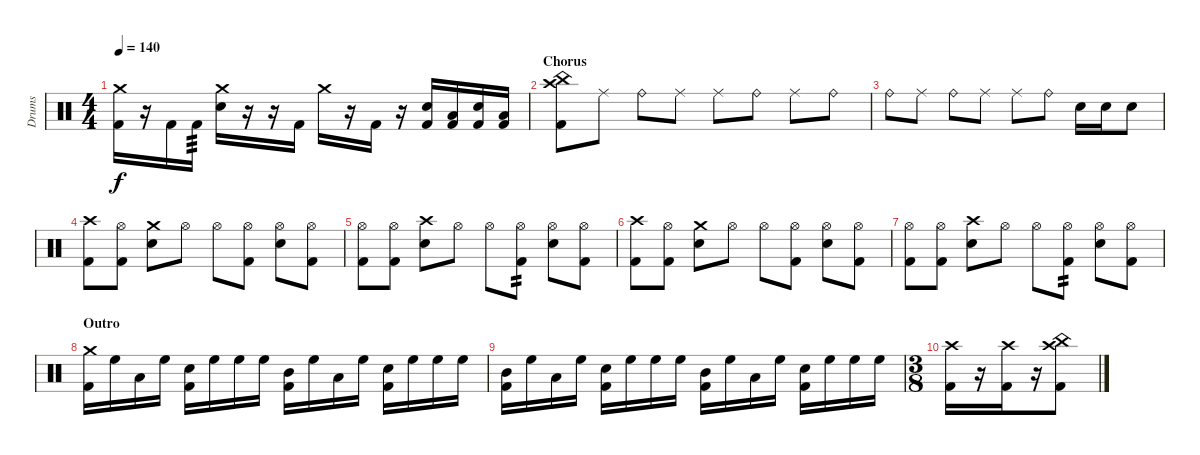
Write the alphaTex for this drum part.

\track ("Drums" "Drums") {instrument percussion}
\staff {score}
\articulation defaults
\ts (4 4)
\tempo 140
\clef neutral
\ks c
("Crash medium (hit)" "Kick (hit) 2").16{dy f} r.16 "Kick (hit) 2".16 "Kick (hit) 2".16{tp 3} ("Crash medium (hit)" "Snare (hit) 2").16 r.16 r.16 "Kick (hit) 2".16 "Crash medium (hit)".16 r.16 "Kick (hit) 2".16 r.16 ("Snare (hit) 2" "Kick (hit) 2").16 ("Low Floor Tom (hit)" "Kick (hit) 2").16 ("Snare (hit) 2" "Kick (hit) 2").16 ("Low Floor Tom (hit)" "Kick (hit) 2").16 |
\section ("" "Chorus")
("Crash high (hit)" "China (hit)" "Kick (hit) 2").8 "Ride (middle)".8 "Ride (bell)".8 "Ride (middle)".8 "Ride (middle)".8 "Ride (bell)".8 "Ride (middle)".8 "Ride (bell)".8 |
"Ride (bell)".8 "Ride (middle)".8 "Ride (bell)".8 "Ride (middle)".8 "Ride (middle)".8 "Ride (bell)".8 "Snare (hit) 2".16 "Snare (hit) 2".16 "Snare (hit) 2".8 |
("Crash high (hit)" "Kick (hit) 2").8 ("Hi-Hat (open)" "Kick (hit) 2").8 ("Crash medium (hit)" "Snare (hit) 2").8 "Hi-Hat (open)".8 "Hi-Hat (open)".8 ("Hi-Hat (open)" "Kick (hit) 2").8 ("Hi-Hat (open)" "Snare (hit) 2").8 ("Hi-Hat (open)" "Kick (hit) 2").8 |
("Hi-Hat (open)" "Kick (hit) 2").8 ("Hi-Hat (open)" "Kick (hit) 2").8 ("Crash high (hit)" "Snare (hit) 2").8 "Hi-Hat (open)".8 "Hi-Hat (open)".8 ("Hi-Hat (open)" "Kick (hit) 2").8{tp 2} ("Hi-Hat (open)" "Snare (hit) 2").8 ("Hi-Hat (open)" "Kick (hit) 2").8 |
("Crash high (hit)" "Kick (hit) 2").8 ("Hi-Hat (open)" "Kick (hit) 2").8 ("Crash medium (hit)" "Snare (hit) 2").8 "Hi-Hat (open)".8 "Hi-Hat (open)".8 ("Hi-Hat (open)" "Kick (hit) 2").8 ("Hi-Hat (open)" "Snare (hit) 2").8 ("Hi-Hat (open)" "Kick (hit) 2").8 |
("Hi-Hat (open)" "Kick (hit) 2").8 ("Hi-Hat (open)" "Kick (hit) 2").8 ("Crash high (hit)" "Snare (hit) 2").8 "Hi-Hat (open)".8 "Hi-Hat (open)".8 ("Hi-Hat (open)" "Kick (hit) 2").8{tp 2} ("Hi-Hat (open)" "Snare (hit) 2").8 ("Hi-Hat (open)" "Kick (hit) 2").8 |
\section ("" "Outro")
("Crash medium (hit)" "Kick (hit) 2").16 "High Floor Tom (hit)".16 "Low Tom (hit)".16 "High Floor Tom (hit)".16 ("Snare (hit) 2" "Kick (hit) 2").16 "High Floor Tom (hit)".16 "High Floor Tom (hit)".16 "High Floor Tom (hit)".16 ("Mid Tom (hit)" "Kick (hit) 2").16 "High Floor Tom (hit)".16 "Low Tom (hit)".16 "High Floor Tom (hit)".16 ("Snare (hit) 2" "Kick (hit) 2").16 "High Floor Tom (hit)".16 "High Floor Tom (hit)".16 "High Floor Tom (hit)".16 |
("Mid Tom (hit)" "Kick (hit) 2").16 "High Floor Tom (hit)".16 "Low Tom (hit)".16 "High Floor Tom (hit)".16 ("Snare (hit) 2" "Kick (hit) 2").16 "High Floor Tom (hit)".16 "High Floor Tom (hit)".16 "High Floor Tom (hit)".16 ("Mid Tom (hit)" "Kick (hit) 2").16 "High Floor Tom (hit)".16 "Low Tom (hit)".16 "High Floor Tom (hit)".16 ("Snare (hit) 2" "Kick (hit) 2").16 "High Floor Tom (hit)".16 "High Floor Tom (hit)".16 "High Floor Tom (hit)".16 |
\ts (3 8)
("Crash high (hit)" "Kick (hit) 2").16 r.16{volume 0} ("Crash high (hit)" "Kick (hit) 2").16{volume 15} r.16{volume 0} ("Crash high (hit)" "China (hit)" "Kick (hit) 2").8{volume 15}
